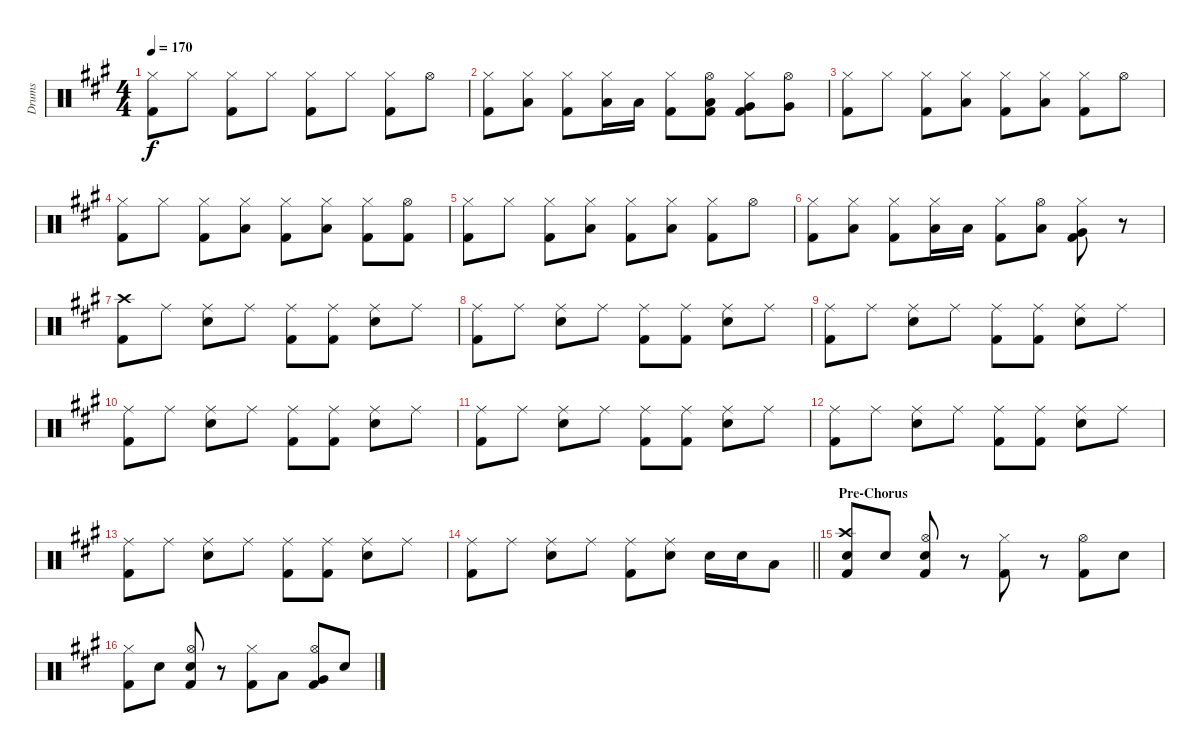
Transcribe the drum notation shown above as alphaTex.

\track ("Drums" "Drums") {instrument percussion}
\staff {score}
\articulation defaults
\ts (4 4)
\tempo 170
\clef neutral
\ks a
("Hi-Hat (closed)" "Kick (hit) 2").8{dy f} "Hi-Hat (closed)".8 ("Hi-Hat (closed)" "Kick (hit) 2").8 "Hi-Hat (closed)".8 ("Hi-Hat (closed)" "Kick (hit) 2").8 "Hi-Hat (closed)".8 ("Hi-Hat (closed)" "Kick (hit) 2").8 "Hi-Hat (open)".8 |
("Hi-Hat (closed)" "Kick (hit) 2").8 ("Hi-Hat (closed)" "Low Tom (hit)").8 ("Hi-Hat (closed)" "Kick (hit) 2").8 ("Hi-Hat (closed)" "Low Tom (hit)").16 "Low Tom (hit)".16 ("Hi-Hat (closed)" "Kick (hit) 2").8 ("Hi-Hat (open)" "Low Tom (hit)" "Kick (hit) 2").8 ("Hi-Hat (closed)" "Very Low Tom (hit)" "Kick (hit) 2").8 ("Hi-Hat (open)" "Very Low Tom (hit)").8 |
("Hi-Hat (closed)" "Kick (hit) 2").8 "Hi-Hat (closed)".8 ("Hi-Hat (closed)" "Kick (hit) 2").8 ("Hi-Hat (closed)" "Low Tom (hit)").8 ("Hi-Hat (closed)" "Kick (hit) 2").8 ("Hi-Hat (closed)" "Low Tom (hit)").8 ("Hi-Hat (closed)" "Kick (hit) 2").8 "Hi-Hat (open)".8 |
("Hi-Hat (closed)" "Kick (hit) 2").8 "Hi-Hat (closed)".8 ("Hi-Hat (closed)" "Kick (hit) 2").8 ("Hi-Hat (closed)" "Low Tom (hit)").8 ("Hi-Hat (closed)" "Kick (hit) 2").8 ("Hi-Hat (closed)" "Low Tom (hit)").8 ("Hi-Hat (closed)" "Kick (hit) 2").8 ("Hi-Hat (open)" "Kick (hit) 2").8 |
("Hi-Hat (closed)" "Kick (hit) 2").8 "Hi-Hat (closed)".8 ("Hi-Hat (closed)" "Kick (hit) 2").8 ("Hi-Hat (closed)" "Low Tom (hit)").8 ("Hi-Hat (closed)" "Kick (hit) 2").8 ("Hi-Hat (closed)" "Low Tom (hit)").8 ("Hi-Hat (closed)" "Kick (hit) 2").8 "Hi-Hat (open)".8 |
("Hi-Hat (closed)" "Kick (hit) 2").8 ("Hi-Hat (closed)" "Low Tom (hit)").8 ("Hi-Hat (closed)" "Kick (hit) 2").8 ("Hi-Hat (closed)" "Low Tom (hit)").16 "Low Tom (hit)".16 ("Hi-Hat (closed)" "Kick (hit) 2").8 ("Hi-Hat (open)" "Low Tom (hit)").8 ("Hi-Hat (closed)" "Very Low Tom (hit)" "Kick (hit) 2").8 r.8 |
("Crash high (hit)" "Kick (hit) 2").8 "Ride (middle)".8 ("Ride (middle)" "Snare (hit) 2").8 "Ride (middle)".8 ("Ride (middle)" "Kick (hit) 2").8 ("Ride (middle)" "Kick (hit) 2").8 ("Ride (middle)" "Snare (hit) 2").8 "Ride (middle)".8 |
("Ride (middle)" "Kick (hit) 2").8 "Ride (middle)".8 ("Ride (middle)" "Snare (hit) 2").8 "Ride (middle)".8 ("Ride (middle)" "Kick (hit) 2").8 ("Ride (middle)" "Kick (hit) 2").8 ("Ride (middle)" "Snare (hit) 2").8 "Ride (middle)".8 |
("Ride (middle)" "Kick (hit) 2").8 "Ride (middle)".8 ("Ride (middle)" "Snare (hit) 2").8 "Ride (middle)".8 ("Ride (middle)" "Kick (hit) 2").8 ("Ride (middle)" "Kick (hit) 2").8 ("Ride (middle)" "Snare (hit) 2").8 "Ride (middle)".8 |
("Ride (middle)" "Kick (hit) 2").8 "Ride (middle)".8 ("Ride (middle)" "Snare (hit) 2").8 "Ride (middle)".8 ("Ride (middle)" "Kick (hit) 2").8 ("Ride (middle)" "Kick (hit) 2").8 ("Ride (middle)" "Snare (hit) 2").8 "Ride (middle)".8 |
("Ride (middle)" "Kick (hit) 2").8 "Ride (middle)".8 ("Ride (middle)" "Snare (hit) 2").8 "Ride (middle)".8 ("Ride (middle)" "Kick (hit) 2").8 ("Ride (middle)" "Kick (hit) 2").8 ("Ride (middle)" "Snare (hit) 2").8 "Ride (middle)".8 |
("Ride (middle)" "Kick (hit) 2").8 "Ride (middle)".8 ("Ride (middle)" "Snare (hit) 2").8 "Ride (middle)".8 ("Ride (middle)" "Kick (hit) 2").8 ("Ride (middle)" "Kick (hit) 2").8 ("Ride (middle)" "Snare (hit) 2").8 "Ride (middle)".8 |
("Ride (middle)" "Kick (hit) 2").8 "Ride (middle)".8 ("Ride (middle)" "Snare (hit) 2").8 "Ride (middle)".8 ("Ride (middle)" "Kick (hit) 2").8 ("Ride (middle)" "Kick (hit) 2").8 ("Ride (middle)" "Snare (hit) 2").8 "Ride (middle)".8 |
\barLineRight lightlight
("Ride (middle)" "Kick (hit) 2").8 "Ride (middle)".8 ("Ride (middle)" "Snare (hit) 2").8 "Ride (middle)".8 ("Ride (middle)" "Kick (hit) 2").8 ("Ride (middle)" "Snare (hit) 2").8 "Snare (hit) 2".16 "Snare (hit) 2".16 "Low Tom (hit)".8 |
\section ("" "Pre-Chorus")
("Crash high (hit)" "Snare (hit) 2" "Kick (hit) 2").8 "Snare (hit) 2".8 ("Hi-Hat (open)" "Snare (hit) 2" "Kick (hit) 2").8 r.8 ("Hi-Hat (closed)" "Kick (hit) 2").8 r.8 ("Hi-Hat (open)" "Kick (hit) 2").8 "Snare (hit) 2".8 |
("Hi-Hat (closed)" "Kick (hit) 2").8 "Snare (hit) 2".8 ("Hi-Hat (open)" "Snare (hit) 2" "Kick (hit) 2").8 r.8 ("Hi-Hat (closed)" "Kick (hit) 2").8 "Low Tom (hit)".8 ("Hi-Hat (open)" "Very Low Tom (hit)" "Kick (hit) 2").8 "Snare (hit) 2".8
